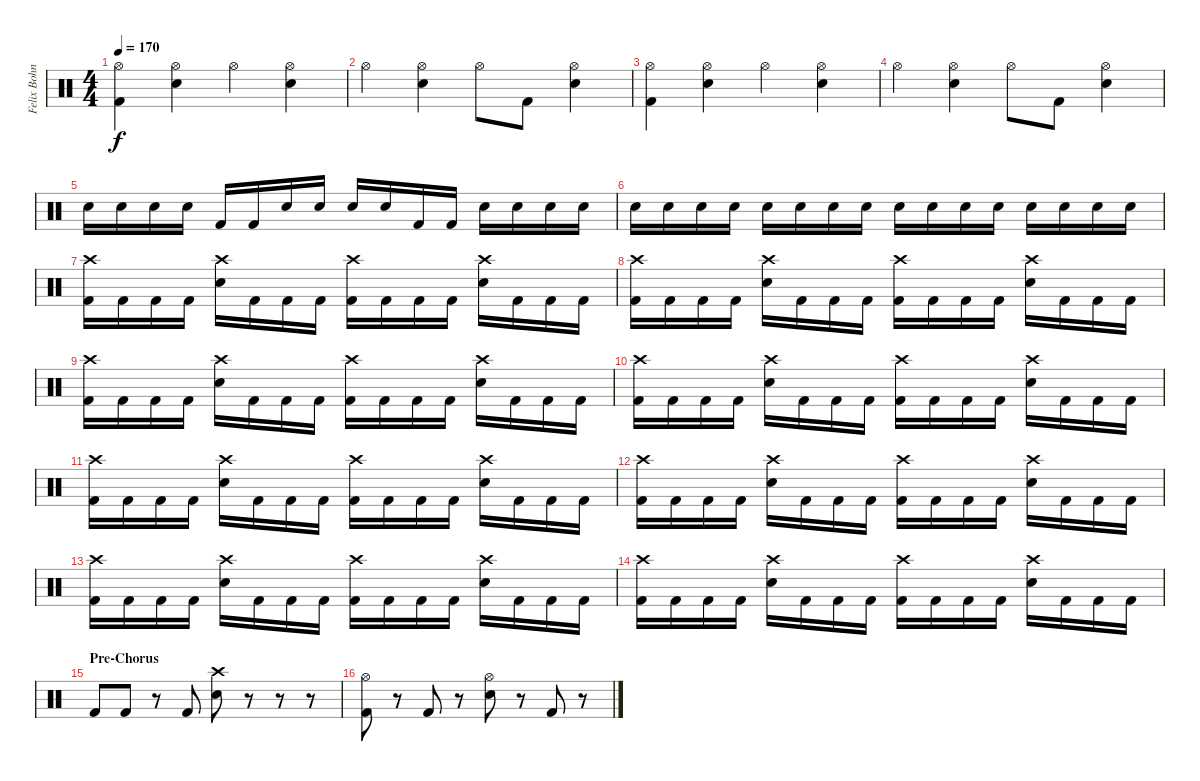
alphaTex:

\track ("Felix Bohnke" "Felix Bohn") {instrument percussion}
\staff {score}
\articulation defaults
\ts (4 4)
\tempo 170
\clef neutral
\ks c
("Hi-Hat (open)" "Kick (hit) 2").4{dy f} ("Hi-Hat (open)" "Snare (hit) 2").4 "Hi-Hat (open)".4 ("Hi-Hat (open)" "Snare (hit) 2").4 |
"Hi-Hat (open)".4 ("Hi-Hat (open)" "Snare (hit) 2").4 "Hi-Hat (open)".8 "Kick (hit) 2".8 ("Hi-Hat (open)" "Snare (hit) 2").4 |
("Hi-Hat (open)" "Kick (hit) 2").4 ("Hi-Hat (open)" "Snare (hit) 2").4 "Hi-Hat (open)".4 ("Hi-Hat (open)" "Snare (hit) 2").4 |
"Hi-Hat (open)".4 ("Hi-Hat (open)" "Snare (hit) 2").4 "Hi-Hat (open)".8 "Kick (hit) 2".8 ("Hi-Hat (open)" "Snare (hit) 2").4 |
"Snare (hit) 2".16 "Snare (hit) 2".16 "Snare (hit) 2".16 "Snare (hit) 2".16 "Kick (hit) 2".16 "Kick (hit) 2".16 "Snare (hit) 2".16 "Snare (hit) 2".16 "Snare (hit) 2".16 "Snare (hit) 2".16 "Kick (hit) 2".16 "Kick (hit) 2".16 "Snare (hit) 2".16 "Snare (hit) 2".16 "Snare (hit) 2".16 "Snare (hit) 2".16 |
"Snare (hit) 2".16{volume 1} "Snare (hit) 2".16{volume 3} "Snare (hit) 2".16{volume 5} "Snare (hit) 2".16{volume 7} "Snare (hit) 2".16{volume 9} "Snare (hit) 2".16{volume 11} "Snare (hit) 2".16{volume 13} "Snare (hit) 2".16{volume 14} "Snare (hit) 2".16 "Snare (hit) 2".16 "Snare (hit) 2".16 "Snare (hit) 2".16 "Snare (hit) 2".16 "Snare (hit) 2".16 "Snare (hit) 2".16 "Snare (hit) 2".16 |
("Crash high (hit)" "Kick (hit) 2").16 "Kick (hit) 2".16 "Kick (hit) 2".16 "Kick (hit) 2".16 ("Crash high (hit)" "Electric Snare (hit)").16 "Kick (hit) 2".16 "Kick (hit) 2".16 "Kick (hit) 2".16 ("Crash high (hit)" "Kick (hit) 2").16 "Kick (hit) 2".16 "Kick (hit) 2".16 "Kick (hit) 2".16 ("Crash high (hit)" "Electric Snare (hit)").16 "Kick (hit) 2".16 "Kick (hit) 2".16 "Kick (hit) 2".16 |
("Crash high (hit)" "Kick (hit) 2").16 "Kick (hit) 2".16 "Kick (hit) 2".16 "Kick (hit) 2".16 ("Crash high (hit)" "Electric Snare (hit)").16 "Kick (hit) 2".16 "Kick (hit) 2".16 "Kick (hit) 2".16 ("Crash high (hit)" "Kick (hit) 2").16 "Kick (hit) 2".16 "Kick (hit) 2".16 "Kick (hit) 2".16 ("Crash high (hit)" "Electric Snare (hit)").16 "Kick (hit) 2".16 "Kick (hit) 2".16 "Kick (hit) 2".16 |
("Crash high (hit)" "Kick (hit) 2").16 "Kick (hit) 2".16 "Kick (hit) 2".16 "Kick (hit) 2".16 ("Crash high (hit)" "Electric Snare (hit)").16 "Kick (hit) 2".16 "Kick (hit) 2".16 "Kick (hit) 2".16 ("Crash high (hit)" "Kick (hit) 2").16 "Kick (hit) 2".16 "Kick (hit) 2".16 "Kick (hit) 2".16 ("Crash high (hit)" "Electric Snare (hit)").16 "Kick (hit) 2".16 "Kick (hit) 2".16 "Kick (hit) 2".16 |
("Crash high (hit)" "Kick (hit) 2").16 "Kick (hit) 2".16 "Kick (hit) 2".16 "Kick (hit) 2".16 ("Crash high (hit)" "Electric Snare (hit)").16 "Kick (hit) 2".16 "Kick (hit) 2".16 "Kick (hit) 2".16 ("Crash high (hit)" "Kick (hit) 2").16 "Kick (hit) 2".16 "Kick (hit) 2".16 "Kick (hit) 2".16 ("Crash high (hit)" "Electric Snare (hit)").16 "Kick (hit) 2".16 "Kick (hit) 2".16 "Kick (hit) 2".16 |
("Crash high (hit)" "Kick (hit) 2").16 "Kick (hit) 2".16 "Kick (hit) 2".16 "Kick (hit) 2".16 ("Crash high (hit)" "Electric Snare (hit)").16 "Kick (hit) 2".16 "Kick (hit) 2".16 "Kick (hit) 2".16 ("Crash high (hit)" "Kick (hit) 2").16 "Kick (hit) 2".16 "Kick (hit) 2".16 "Kick (hit) 2".16 ("Crash high (hit)" "Electric Snare (hit)").16 "Kick (hit) 2".16 "Kick (hit) 2".16 "Kick (hit) 2".16 |
("Crash high (hit)" "Kick (hit) 2").16 "Kick (hit) 2".16 "Kick (hit) 2".16 "Kick (hit) 2".16 ("Crash high (hit)" "Electric Snare (hit)").16 "Kick (hit) 2".16 "Kick (hit) 2".16 "Kick (hit) 2".16 ("Crash high (hit)" "Kick (hit) 2").16 "Kick (hit) 2".16 "Kick (hit) 2".16 "Kick (hit) 2".16 ("Crash high (hit)" "Electric Snare (hit)").16 "Kick (hit) 2".16 "Kick (hit) 2".16 "Kick (hit) 2".16 |
("Crash high (hit)" "Kick (hit) 2").16 "Kick (hit) 2".16 "Kick (hit) 2".16 "Kick (hit) 2".16 ("Crash high (hit)" "Electric Snare (hit)").16 "Kick (hit) 2".16 "Kick (hit) 2".16 "Kick (hit) 2".16 ("Crash high (hit)" "Kick (hit) 2").16 "Kick (hit) 2".16 "Kick (hit) 2".16 "Kick (hit) 2".16 ("Crash high (hit)" "Electric Snare (hit)").16 "Kick (hit) 2".16 "Kick (hit) 2".16 "Kick (hit) 2".16 |
("Crash high (hit)" "Kick (hit) 2").16 "Kick (hit) 2".16 "Kick (hit) 2".16 "Kick (hit) 2".16 ("Crash high (hit)" "Electric Snare (hit)").16 "Kick (hit) 2".16 "Kick (hit) 2".16 "Kick (hit) 2".16 ("Crash high (hit)" "Kick (hit) 2").16 "Kick (hit) 2".16 "Kick (hit) 2".16 "Kick (hit) 2".16 ("Crash high (hit)" "Electric Snare (hit)").16 "Kick (hit) 2".16 "Kick (hit) 2".16 "Kick (hit) 2".16 |
\section ("" "Pre-Chorus")
"Kick (hit) 2".8 "Kick (hit) 2".8 r.8 "Kick (hit) 2".8 ("Crash high (hit)" "Electric Snare (hit)").8 r.8 r.8 r.8 |
("Hi-Hat (open)" "Kick (hit) 2").8 r.8 "Kick (hit) 2".8 r.8 ("Hi-Hat (open)" "Electric Snare (hit)").8 r.8 "Kick (hit) 2".8 r.8
